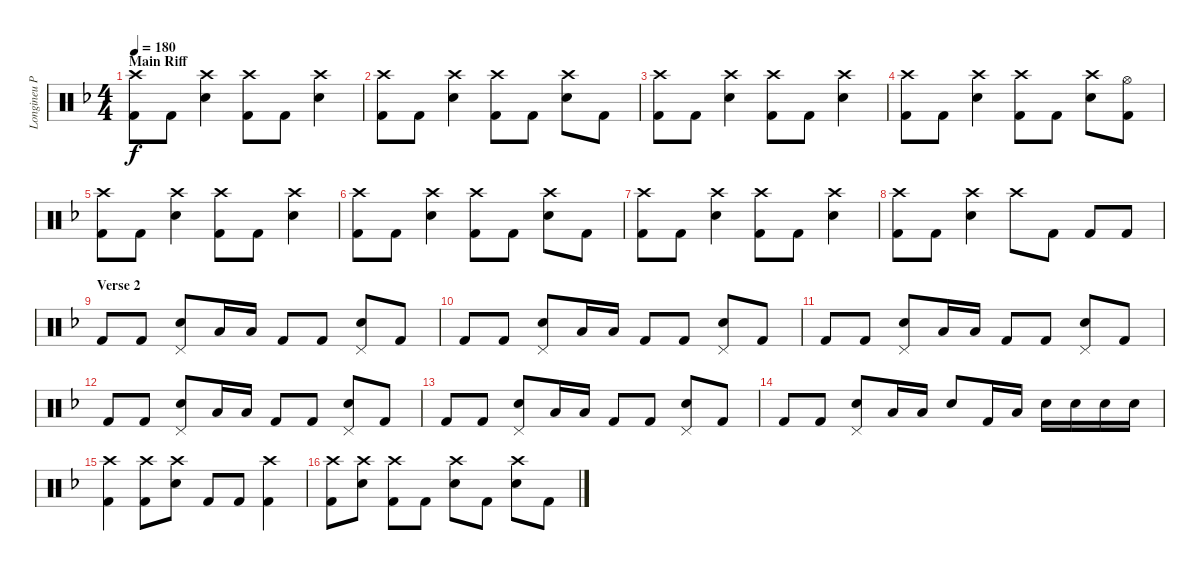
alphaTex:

\track ("Longineu Parsons III (Drums 1)" "Longineu P") {instrument percussion}
\staff {score}
\articulation defaults
\ts (4 4)
\section ("" "Main Riff")
\tempo 180
\clef neutral
\ks f
("Crash high (hit)" "Kick (hit) 2").8{dy f} "Kick (hit) 2".8 ("Crash high (hit)" "Snare (hit) 2").4 ("Crash high (hit)" "Kick (hit) 2").8 "Kick (hit) 2".8 ("Crash high (hit)" "Snare (hit) 2").4 |
("Crash high (hit)" "Kick (hit) 2").8 "Kick (hit) 2".8 ("Crash high (hit)" "Snare (hit) 2").4 ("Crash high (hit)" "Kick (hit) 2").8 "Kick (hit) 2".8 ("Crash high (hit)" "Snare (hit) 2").8 "Kick (hit) 2".8 |
("Crash high (hit)" "Kick (hit) 2").8 "Kick (hit) 2".8 ("Crash high (hit)" "Snare (hit) 2").4 ("Crash high (hit)" "Kick (hit) 2").8 "Kick (hit) 2".8 ("Crash high (hit)" "Snare (hit) 2").4 |
("Crash high (hit)" "Kick (hit) 2").8 "Kick (hit) 2".8 ("Crash high (hit)" "Snare (hit) 2").4 ("Crash high (hit)" "Kick (hit) 2").8 "Kick (hit) 2".8 ("Crash high (hit)" "Snare (hit) 2").8 ("Hi-Hat (open)" "Kick (hit) 2").8 |
("Crash high (hit)" "Kick (hit) 2").8 "Kick (hit) 2".8 ("Crash high (hit)" "Snare (hit) 2").4 ("Crash high (hit)" "Kick (hit) 2").8 "Kick (hit) 2".8 ("Crash high (hit)" "Snare (hit) 2").4 |
("Crash high (hit)" "Kick (hit) 2").8 "Kick (hit) 2".8 ("Crash high (hit)" "Snare (hit) 2").4 ("Crash high (hit)" "Kick (hit) 2").8 "Kick (hit) 2".8 ("Crash high (hit)" "Snare (hit) 2").8 "Kick (hit) 2".8 |
("Crash high (hit)" "Kick (hit) 2").8 "Kick (hit) 2".8 ("Crash high (hit)" "Snare (hit) 2").4 ("Crash high (hit)" "Kick (hit) 2").8 "Kick (hit) 2".8 ("Crash high (hit)" "Snare (hit) 2").4 |
("Crash high (hit)" "Kick (hit) 2").8 "Kick (hit) 2".8 ("Crash high (hit)" "Snare (hit) 2").4 "Crash high (hit)".8 "Kick (hit) 2".8 "Kick (hit) 2".8 "Kick (hit) 2".8 |
\section ("" "Verse 2")
"Kick (hit) 2".8 "Kick (hit) 2".8 ("Snare (hit) 2" "Pedal Hi-Hat (hit)").8 "Low Tom (hit)".16 "Low Floor Tom (hit)".16 "Kick (hit) 2".8 "Kick (hit) 2".8 ("Snare (hit) 2" "Pedal Hi-Hat (hit)").8 "Kick (hit) 2".8 |
"Kick (hit) 2".8 "Kick (hit) 2".8 ("Snare (hit) 2" "Pedal Hi-Hat (hit)").8 "Low Tom (hit)".16 "Low Floor Tom (hit)".16 "Kick (hit) 2".8 "Kick (hit) 2".8 ("Snare (hit) 2" "Pedal Hi-Hat (hit)").8 "Kick (hit) 2".8 |
"Kick (hit) 2".8 "Kick (hit) 2".8 ("Snare (hit) 2" "Pedal Hi-Hat (hit)").8 "Low Tom (hit)".16 "Low Floor Tom (hit)".16 "Kick (hit) 2".8 "Kick (hit) 2".8 ("Snare (hit) 2" "Pedal Hi-Hat (hit)").8 "Kick (hit) 2".8 |
"Kick (hit) 2".8 "Kick (hit) 2".8 ("Snare (hit) 2" "Pedal Hi-Hat (hit)").8 "Low Tom (hit)".16 "Low Floor Tom (hit)".16 "Kick (hit) 2".8 "Kick (hit) 2".8 ("Snare (hit) 2" "Pedal Hi-Hat (hit)").8 "Kick (hit) 2".8 |
"Kick (hit) 2".8 "Kick (hit) 2".8 ("Snare (hit) 2" "Pedal Hi-Hat (hit)").8 "Low Tom (hit)".16 "Low Floor Tom (hit)".16 "Kick (hit) 2".8 "Kick (hit) 2".8 ("Snare (hit) 2" "Pedal Hi-Hat (hit)").8 "Kick (hit) 2".8 |
"Kick (hit) 2".8 "Kick (hit) 2".8 ("Snare (hit) 2" "Pedal Hi-Hat (hit)").8 "Low Tom (hit)".16 "Low Floor Tom (hit)".16 "Snare (hit) 2".8 "Kick (hit) 2".16 "Low Tom (hit)".16 "Snare (hit) 2".16 "Snare (hit) 2".16 "Snare (hit) 2".16 "Snare (hit) 2".16 |
("Crash high (hit)" "Kick (hit) 2").4 ("Crash high (hit)" "Kick (hit) 2").8 ("Crash high (hit)" "Snare (hit) 2").8 "Kick (hit) 2".8 "Kick (hit) 2".8 ("Crash high (hit)" "Kick (hit) 2").4 |
("Kick (hit) 2" "Crash high (hit)").8 ("Snare (hit) 2" "Crash high (hit)").8 ("Crash high (hit)" "Kick (hit) 2").8 "Kick (hit) 2".8 ("Crash high (hit)" "Snare (hit) 2").8 "Kick (hit) 2".8 ("Crash high (hit)" "Snare (hit) 2").8 "Kick (hit) 2".8
